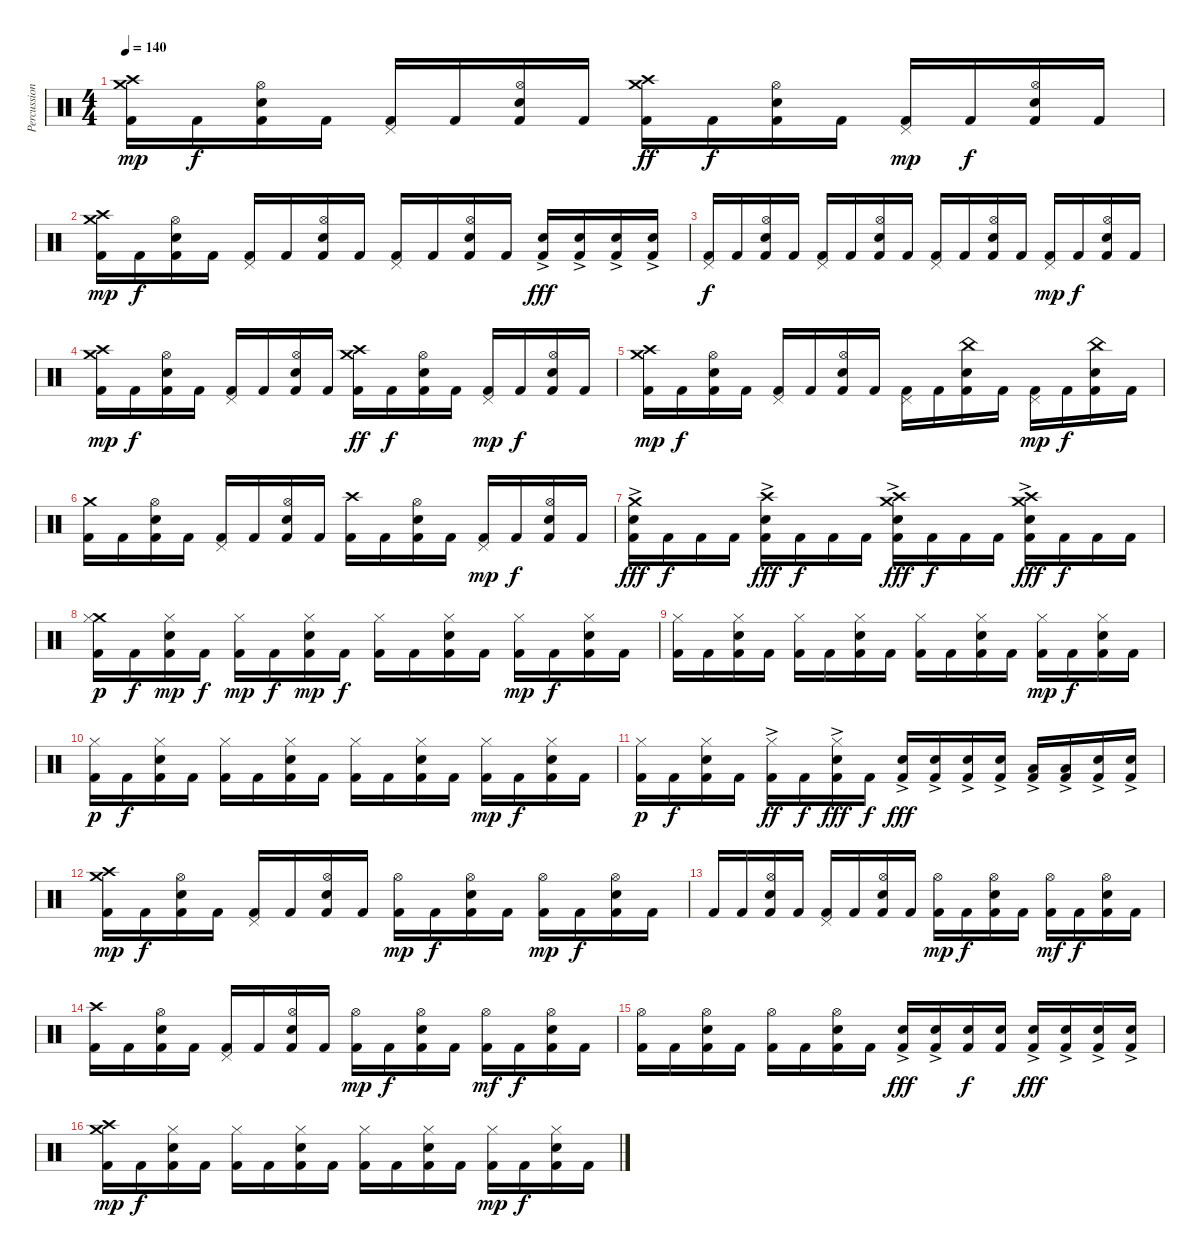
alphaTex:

\track ("Percussion" "Percussion") {instrument percussion}
\staff {score}
\articulation defaults
\ts (4 4)
\tempo 140
\clef neutral
\ks c
("Crash medium (hit)" "Crash high (hit)" "Kick (hit) 2").16{dy mp} "Kick (hit) 2".16{dy f} ("Hi-Hat (open)" "Electric Snare (hit)" "Kick (hit) 2").16 "Kick (hit) 2".16 ("Pedal Hi-Hat (hit)" "Kick (hit) 2").16 "Kick (hit) 2".16 ("Hi-Hat (open)" "Electric Snare (hit)" "Kick (hit) 2").16 "Kick (hit) 2".16 ("Crash high (hit)" "Crash medium (hit)" "Kick (hit) 2").16{dy ff} "Kick (hit) 2".16{dy f} ("Hi-Hat (open)" "Electric Snare (hit)" "Kick (hit) 2").16 "Kick (hit) 2".16 ("Pedal Hi-Hat (hit)" "Kick (hit) 2").16{dy mp} "Kick (hit) 2".16{dy f} ("Hi-Hat (open)" "Electric Snare (hit)" "Kick (hit) 2").16 "Kick (hit) 2".16 |
("Crash medium (hit)" "Crash high (hit)" "Kick (hit) 2").16{dy mp} "Kick (hit) 2".16{dy f} ("Hi-Hat (open)" "Electric Snare (hit)" "Kick (hit) 2").16 "Kick (hit) 2".16 ("Pedal Hi-Hat (hit)" "Kick (hit) 2").16 "Kick (hit) 2".16 ("Hi-Hat (open)" "Electric Snare (hit)" "Kick (hit) 2").16 "Kick (hit) 2".16 ("Pedal Hi-Hat (hit)" "Kick (hit) 2").16 "Kick (hit) 2".16 ("Hi-Hat (open)" "Electric Snare (hit)" "Kick (hit) 2").16 "Kick (hit) 2".16 ("Electric Snare (hit)"{ac} "Kick (hit) 2").16{dy fff} ("Electric Snare (hit)"{ac} "Kick (hit) 2").16 ("Electric Snare (hit)"{ac} "Kick (hit) 2").16 ("Electric Snare (hit)"{ac} "Kick (hit) 2").16 |
("Pedal Hi-Hat (hit)" "Kick (hit) 2").16{dy f} "Kick (hit) 2".16 ("Hi-Hat (open)" "Electric Snare (hit)" "Kick (hit) 2").16 "Kick (hit) 2".16 ("Pedal Hi-Hat (hit)" "Kick (hit) 2").16 "Kick (hit) 2".16 ("Hi-Hat (open)" "Electric Snare (hit)" "Kick (hit) 2").16 "Kick (hit) 2".16 ("Pedal Hi-Hat (hit)" "Kick (hit) 2").16 "Kick (hit) 2".16 ("Hi-Hat (open)" "Electric Snare (hit)" "Kick (hit) 2").16 "Kick (hit) 2".16 ("Pedal Hi-Hat (hit)" "Kick (hit) 2").16{dy mp} "Kick (hit) 2".16{dy f} ("Hi-Hat (open)" "Electric Snare (hit)" "Kick (hit) 2").16 "Kick (hit) 2".16 |
("Crash high (hit)" "Crash medium (hit)" "Kick (hit) 2").16{dy mp} "Kick (hit) 2".16{dy f} ("Hi-Hat (open)" "Electric Snare (hit)" "Kick (hit) 2").16 "Kick (hit) 2".16 ("Pedal Hi-Hat (hit)" "Kick (hit) 2").16 "Kick (hit) 2".16 ("Hi-Hat (open)" "Electric Snare (hit)" "Kick (hit) 2").16 "Kick (hit) 2".16 ("Crash medium (hit)" "Crash high (hit)" "Kick (hit) 2").16{dy ff} "Kick (hit) 2".16{dy f} ("Hi-Hat (open)" "Electric Snare (hit)" "Kick (hit) 2").16 "Kick (hit) 2".16 ("Pedal Hi-Hat (hit)" "Kick (hit) 2").16{dy mp} "Kick (hit) 2".16{dy f} ("Hi-Hat (open)" "Electric Snare (hit)" "Kick (hit) 2").16 "Kick (hit) 2".16 |
("Crash high (hit)" "Crash medium (hit)" "Kick (hit) 2").16{dy mp} "Kick (hit) 2".16{dy f} ("Hi-Hat (open)" "Electric Snare (hit)" "Kick (hit) 2").16 "Kick (hit) 2".16 ("Pedal Hi-Hat (hit)" "Kick (hit) 2").16 "Kick (hit) 2".16 ("Hi-Hat (open)" "Electric Snare (hit)" "Kick (hit) 2").16 "Kick (hit) 2".16 ("Pedal Hi-Hat (hit)" "Kick (hit) 2").16 "Kick (hit) 2".16 ("China (hit)" "Electric Snare (hit)" "Kick (hit) 2").16 "Kick (hit) 2".16 ("Pedal Hi-Hat (hit)" "Kick (hit) 2").16{dy mp} "Kick (hit) 2".16{dy f} ("China (hit)" "Electric Snare (hit)" "Kick (hit) 2").16 "Kick (hit) 2".16 |
("Crash medium (hit)" "Kick (hit) 2").16 "Kick (hit) 2".16 ("Hi-Hat (open)" "Electric Snare (hit)" "Kick (hit) 2").16 "Kick (hit) 2".16 ("Pedal Hi-Hat (hit)" "Kick (hit) 2").16 "Kick (hit) 2".16 ("Hi-Hat (open)" "Electric Snare (hit)" "Kick (hit) 2").16 "Kick (hit) 2".16 ("Crash high (hit)" "Kick (hit) 2").16 "Kick (hit) 2".16 ("Hi-Hat (open)" "Electric Snare (hit)" "Kick (hit) 2").16 "Kick (hit) 2".16 ("Pedal Hi-Hat (hit)" "Kick (hit) 2").16{dy mp} "Kick (hit) 2".16{dy f} ("Hi-Hat (open)" "Electric Snare (hit)" "Kick (hit) 2").16 "Kick (hit) 2".16 |
("Crash medium (hit)" "Electric Snare (hit)"{ac} "Kick (hit) 2").16{dy fff} "Kick (hit) 2".16{dy f} "Kick (hit) 2".16 "Kick (hit) 2".16 ("Crash high (hit)" "Electric Snare (hit)"{ac} "Kick (hit) 2").16{dy fff} "Kick (hit) 2".16{dy f} "Kick (hit) 2".16 "Kick (hit) 2".16 ("Crash medium (hit)" "Crash high (hit)" "Electric Snare (hit)"{ac} "Kick (hit) 2").16{dy fff} "Kick (hit) 2".16{dy f} "Kick (hit) 2".16 "Kick (hit) 2".16 ("Crash high (hit)" "Crash medium (hit)" "Electric Snare (hit)"{ac} "Kick (hit) 2").16{dy fff} "Kick (hit) 2".16{dy f} "Kick (hit) 2".16 "Kick (hit) 2".16 |
("Crash medium (hit)" "Hi-Hat (closed)" "Kick (hit) 2").16{dy p} "Kick (hit) 2".16{dy f} ("Hi-Hat (closed)" "Electric Snare (hit)" "Kick (hit) 2").16{dy mp} "Kick (hit) 2".16{dy f} ("Hi-Hat (closed)" "Kick (hit) 2").16{dy mp} "Kick (hit) 2".16{dy f} ("Hi-Hat (closed)" "Electric Snare (hit)" "Kick (hit) 2").16{dy mp} "Kick (hit) 2".16{dy f} ("Hi-Hat (closed)" "Kick (hit) 2").16 "Kick (hit) 2".16 ("Hi-Hat (closed)" "Electric Snare (hit)" "Kick (hit) 2").16 "Kick (hit) 2".16 ("Hi-Hat (closed)" "Kick (hit) 2").16{dy mp} "Kick (hit) 2".16{dy f} ("Hi-Hat (closed)" "Electric Snare (hit)" "Kick (hit) 2").16 "Kick (hit) 2".16 |
("Hi-Hat (closed)" "Kick (hit) 2").16 "Kick (hit) 2".16 ("Hi-Hat (closed)" "Electric Snare (hit)" "Kick (hit) 2").16 "Kick (hit) 2".16 ("Hi-Hat (closed)" "Kick (hit) 2").16 "Kick (hit) 2".16 ("Hi-Hat (closed)" "Electric Snare (hit)" "Kick (hit) 2").16 "Kick (hit) 2".16 ("Hi-Hat (closed)" "Kick (hit) 2").16 "Kick (hit) 2".16 ("Hi-Hat (closed)" "Electric Snare (hit)" "Kick (hit) 2").16 "Kick (hit) 2".16 ("Hi-Hat (closed)" "Kick (hit) 2").16{dy mp} "Kick (hit) 2".16{dy f} ("Hi-Hat (closed)" "Electric Snare (hit)" "Kick (hit) 2").16 "Kick (hit) 2".16 |
("Hi-Hat (closed)" "Kick (hit) 2").16{dy p} "Kick (hit) 2".16{dy f} ("Hi-Hat (closed)" "Electric Snare (hit)" "Kick (hit) 2").16 "Kick (hit) 2".16 ("Hi-Hat (closed)" "Kick (hit) 2").16 "Kick (hit) 2".16 ("Hi-Hat (closed)" "Electric Snare (hit)" "Kick (hit) 2").16 "Kick (hit) 2".16 ("Hi-Hat (closed)" "Kick (hit) 2").16 "Kick (hit) 2".16 ("Hi-Hat (closed)" "Electric Snare (hit)" "Kick (hit) 2").16 "Kick (hit) 2".16 ("Hi-Hat (closed)" "Kick (hit) 2").16{dy mp} "Kick (hit) 2".16{dy f} ("Hi-Hat (closed)" "Electric Snare (hit)" "Kick (hit) 2").16 "Kick (hit) 2".16 |
("Hi-Hat (closed)" "Kick (hit) 2").16{dy p} "Kick (hit) 2".16{dy f} ("Hi-Hat (closed)" "Electric Snare (hit)" "Kick (hit) 2").16 "Kick (hit) 2".16 ("Hi-Hat (closed)"{ac} "Kick (hit) 2").16{dy ff} "Kick (hit) 2".16{dy f} ("Hi-Hat (closed)"{ac} "Electric Snare (hit)" "Kick (hit) 2").16{dy fff} "Kick (hit) 2".16{dy f} ("Electric Snare (hit)"{ac} "Kick (hit) 2").16{dy fff} ("Electric Snare (hit)"{ac} "Kick (hit) 2").16 ("Electric Snare (hit)"{ac} "Kick (hit) 2").16 ("Electric Snare (hit)"{ac} "Kick (hit) 2").16 ("Low Tom (hit)"{ac} "Kick (hit) 2").16 ("Low Tom (hit)"{ac} "Kick (hit) 2").16 ("Electric Snare (hit)"{ac} "Kick (hit) 2").16 ("Electric Snare (hit)"{ac} "Kick (hit) 2").16 |
("Crash high (hit)" "Crash medium (hit)" "Kick (hit) 2").16{dy mp} "Kick (hit) 2".16{dy f} ("Hi-Hat (open)" "Electric Snare (hit)" "Kick (hit) 2").16 "Kick (hit) 2".16 ("Pedal Hi-Hat (hit)" "Kick (hit) 2").16 "Kick (hit) 2".16 ("Hi-Hat (open)" "Electric Snare (hit)" "Kick (hit) 2").16 "Kick (hit) 2".16 ("Hi-Hat (open)" "Kick (hit) 2").16{dy mp} "Kick (hit) 2".16{dy f} ("Hi-Hat (open)" "Electric Snare (hit)" "Kick (hit) 2").16 "Kick (hit) 2".16 ("Hi-Hat (open)" "Kick (hit) 2").16{dy mp} "Kick (hit) 2".16{dy f} ("Hi-Hat (open)" "Electric Snare (hit)" "Kick (hit) 2").16 "Kick (hit) 2".16 |
"Kick (hit) 2".16 "Kick (hit) 2".16 ("Hi-Hat (open)" "Electric Snare (hit)" "Kick (hit) 2").16 "Kick (hit) 2".16 ("Pedal Hi-Hat (hit)" "Kick (hit) 2").16 "Kick (hit) 2".16 ("Hi-Hat (open)" "Electric Snare (hit)" "Kick (hit) 2").16 "Kick (hit) 2".16 ("Hi-Hat (open)" "Kick (hit) 2").16{dy mp} "Kick (hit) 2".16{dy f} ("Hi-Hat (open)" "Electric Snare (hit)" "Kick (hit) 2").16 "Kick (hit) 2".16 ("Hi-Hat (open)" "Kick (hit) 2").16{dy mf} "Kick (hit) 2".16{dy f} ("Hi-Hat (open)" "Electric Snare (hit)" "Kick (hit) 2").16 "Kick (hit) 2".16 |
("Crash high (hit)" "Kick (hit) 2").16 "Kick (hit) 2".16 ("Hi-Hat (open)" "Electric Snare (hit)" "Kick (hit) 2").16 "Kick (hit) 2".16 ("Pedal Hi-Hat (hit)" "Kick (hit) 2").16 "Kick (hit) 2".16 ("Hi-Hat (open)" "Electric Snare (hit)" "Kick (hit) 2").16 "Kick (hit) 2".16 ("Hi-Hat (open)" "Kick (hit) 2").16{dy mp} "Kick (hit) 2".16{dy f} ("Hi-Hat (open)" "Electric Snare (hit)" "Kick (hit) 2").16 "Kick (hit) 2".16 ("Hi-Hat (open)" "Kick (hit) 2").16{dy mf} "Kick (hit) 2".16{dy f} ("Hi-Hat (open)" "Electric Snare (hit)" "Kick (hit) 2").16 "Kick (hit) 2".16 |
("Hi-Hat (open)" "Kick (hit) 2").16 "Kick (hit) 2".16 ("Hi-Hat (open)" "Electric Snare (hit)" "Kick (hit) 2").16 "Kick (hit) 2".16 ("Hi-Hat (open)" "Kick (hit) 2").16 "Kick (hit) 2".16 ("Hi-Hat (open)" "Electric Snare (hit)" "Kick (hit) 2").16 "Kick (hit) 2".16 ("Electric Snare (hit)"{ac} "Kick (hit) 2").16{dy fff} ("Electric Snare (hit)"{ac} "Kick (hit) 2").16 ("Electric Snare (hit)" "Kick (hit) 2").16{dy f} ("Electric Snare (hit)" "Kick (hit) 2").16 ("Electric Snare (hit)"{ac} "Kick (hit) 2").16{dy fff} ("Electric Snare (hit)"{ac} "Kick (hit) 2").16 ("Electric Snare (hit)"{ac} "Kick (hit) 2").16 ("Electric Snare (hit)"{ac} "Kick (hit) 2").16 |
("Crash medium (hit)" "Crash high (hit)" "Kick (hit) 2").16{dy mp} "Kick (hit) 2".16{dy f} ("Hi-Hat (closed)" "Electric Snare (hit)" "Kick (hit) 2").16 "Kick (hit) 2".16 ("Hi-Hat (closed)" "Kick (hit) 2").16 "Kick (hit) 2".16 ("Hi-Hat (closed)" "Electric Snare (hit)" "Kick (hit) 2").16 "Kick (hit) 2".16 ("Hi-Hat (closed)" "Kick (hit) 2").16 "Kick (hit) 2".16 ("Hi-Hat (closed)" "Electric Snare (hit)" "Kick (hit) 2").16 "Kick (hit) 2".16 ("Hi-Hat (closed)" "Kick (hit) 2").16{dy mp} "Kick (hit) 2".16{dy f} ("Hi-Hat (closed)" "Electric Snare (hit)" "Kick (hit) 2").16 "Kick (hit) 2".16
